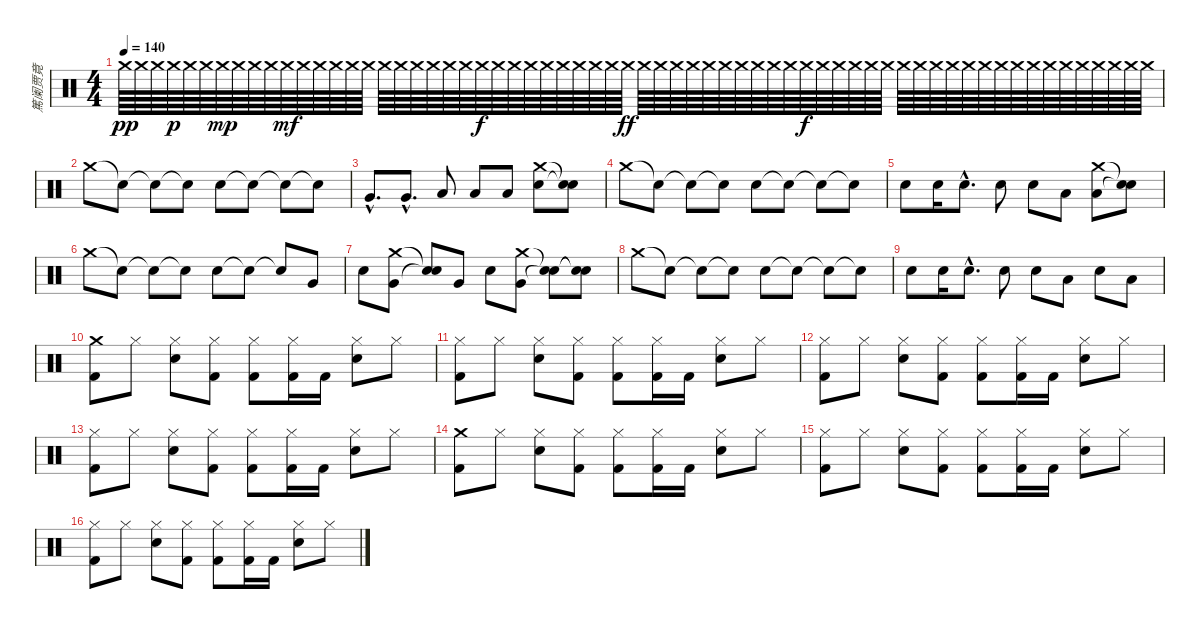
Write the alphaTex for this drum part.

\track ("篤阑贾竟" "篤阑贾竟") {instrument percussion}
\staff {score}
\articulation defaults
\ts (4 4)
\tempo 140
\clef neutral
\ks c "Crash medium (hit)".64{dy pp} "Crash medium (hit)".64 "Crash medium (hit)".64 "Crash medium (hit)".64{dy p} "Crash medium (hit)".64 "Crash medium (hit)".64 "Crash medium (hit)".64{dy mp} "Crash medium (hit)".64 "Crash medium (hit)".64 "Crash medium (hit)".64 "Crash medium (hit)".64{dy mf} "Crash medium (hit)".64 "Crash medium (hit)".64 "Crash medium (hit)".64 "Crash medium (hit)".64 "Crash medium (hit)".64 "Crash medium (hit)".64 "Crash medium (hit)".64 "Crash medium (hit)".64 "Crash medium (hit)".64 "Crash medium (hit)".64 "Crash medium (hit)".64 "Crash medium (hit)".64{dy f} "Crash medium (hit)".64 "Crash medium (hit)".64 "Crash medium (hit)".64 "Crash medium (hit)".64 "Crash medium (hit)".64 "Crash medium (hit)".64 "Crash medium (hit)".64 "Crash medium (hit)".64 "Crash medium (hit)".64{dy ff} "Crash medium (hit)".64 "Crash medium (hit)".64 "Crash medium (hit)".64 "Crash medium (hit)".64 "Crash medium (hit)".64 "Crash medium (hit)".64 "Crash medium (hit)".64 "Crash medium (hit)".64 "Crash medium (hit)".64 "Crash medium (hit)".64 "Crash medium (hit)".64{dy f} "Crash medium (hit)".64 "Crash medium (hit)".64 "Crash medium (hit)".64 "Crash medium (hit)".64 "Crash medium (hit)".64 "Crash medium (hit)".64 "Crash medium (hit)".64 "Crash medium (hit)".64 "Crash medium (hit)".64 "Crash medium (hit)".64 "Crash medium (hit)".64 "Crash medium (hit)".64 "Crash medium (hit)".64 "Crash medium (hit)".64 "Crash medium (hit)".64 "Crash medium (hit)".64 "Crash medium (hit)".64 "Crash medium (hit)".64 "Crash medium (hit)".64 "Crash medium (hit)".64 "Crash medium (hit)".64
|
"Crash medium (hit)".8 "Snare (hit)"{t}.8 "Snare (hit)"{t}.8 "Snare (hit)"{t}.8 "Snare (hit) 2".8 "Snare (hit)"{t}.8 "Snare (hit)"{t}.8 "Snare (hit)"{t}.8 |
"Very Low Tom (hit)"{hac}.8{d} "Very Low Tom (hit)"{hac}.8{d} "Low Floor Tom (hit)".8 "Low Floor Tom (hit)".8 "Low Floor Tom (hit)".8 ("Crash medium (hit)" "Snare (hit) 2").8 ("Snare (hit)"{t} "Snare (hit)"{t}).8 |
"Crash medium (hit)".8 "Snare (hit)"{t}.8 "Snare (hit)"{t}.8 "Snare (hit)"{t}.8 "Snare (hit) 2".8 "Snare (hit)"{t}.8 "Snare (hit)"{t}.8 "Snare (hit)"{t}.8 |
"Snare (hit) 2".8 "Snare (hit) 2".16 "Snare (hit) 2"{hac}.8{d} "Snare (hit) 2".8 "Snare (hit) 2".8 "Low Floor Tom (hit)".8 ("Crash medium (hit)" "Low Floor Tom (hit)").8 ("Snare (hit)"{t} "Snare (hit)"{t}).8 |
"Crash medium (hit)".8 "Snare (hit)"{t}.8 "Snare (hit)"{t}.8 "Snare (hit)"{t}.8 "Snare (hit) 2".8 "Snare (hit)"{t}.8 "Snare (hit)"{t}.8 "Very Low Tom (hit)".8 |
"Snare (hit) 2".8 ("Crash medium (hit)" "Very Low Tom (hit)").8 ("Snare (hit)"{t} "Snare (hit)"{t}).8 "Very Low Tom (hit)".8 "Snare (hit) 2".8 ("Crash medium (hit)" "Very Low Tom (hit)").8 ("Snare (hit)"{t} "Snare (hit)"{t}).8 ("Snare (hit)"{t} "Snare (hit)"{t}).8 |
"Crash medium (hit)".8 "Snare (hit)"{t}.8 "Snare (hit)"{t}.8 "Snare (hit)"{t}.8 "Snare (hit) 2".8 "Snare (hit)"{t}.8 "Snare (hit)"{t}.8 "Snare (hit)"{t}.8 |
"Snare (hit) 2".8 "Snare (hit) 2".16 "Snare (hit) 2"{hac}.8{d} "Snare (hit) 2".8 "Snare (hit) 2".8 "Low Floor Tom (hit)".8 "Snare (hit) 2".8 "Low Floor Tom (hit)".8 |
("Crash medium (hit)" "Kick (hit) 2").8 "Hi-Hat (closed)".8 ("Hi-Hat (closed)" "Snare (hit) 2").8 ("Hi-Hat (closed)" "Kick (hit) 2").8 ("Hi-Hat (closed)" "Kick (hit) 2").8 ("Hi-Hat (closed)" "Kick (hit) 2").16 "Kick (hit) 2".16 ("Hi-Hat (closed)" "Snare (hit) 2").8 "Hi-Hat (closed)".8 |
("Hi-Hat (closed)" "Kick (hit) 2").8 "Hi-Hat (closed)".8 ("Hi-Hat (closed)" "Snare (hit) 2").8 ("Hi-Hat (closed)" "Kick (hit) 2").8 ("Hi-Hat (closed)" "Kick (hit) 2").8 ("Hi-Hat (closed)" "Kick (hit) 2").16 "Kick (hit) 2".16 ("Hi-Hat (closed)" "Snare (hit) 2").8 "Hi-Hat (closed)".8 |
("Hi-Hat (closed)" "Kick (hit) 2").8 "Hi-Hat (closed)".8 ("Hi-Hat (closed)" "Snare (hit) 2").8 ("Hi-Hat (closed)" "Kick (hit) 2").8 ("Hi-Hat (closed)" "Kick (hit) 2").8 ("Hi-Hat (closed)" "Kick (hit) 2").16 "Kick (hit) 2".16 ("Hi-Hat (closed)" "Snare (hit) 2").8 "Hi-Hat (closed)".8 |
("Hi-Hat (closed)" "Kick (hit) 2").8 "Hi-Hat (closed)".8 ("Hi-Hat (closed)" "Snare (hit) 2").8 ("Hi-Hat (closed)" "Kick (hit) 2").8 ("Hi-Hat (closed)" "Kick (hit) 2").8 ("Hi-Hat (closed)" "Kick (hit) 2").16 "Kick (hit) 2".16 ("Hi-Hat (closed)" "Snare (hit) 2").8 "Hi-Hat (closed)".8 |
("Crash medium (hit)" "Kick (hit) 2").8 "Hi-Hat (closed)".8 ("Hi-Hat (closed)" "Snare (hit) 2").8 ("Hi-Hat (closed)" "Kick (hit) 2").8 ("Hi-Hat (closed)" "Kick (hit) 2").8 ("Hi-Hat (closed)" "Kick (hit) 2").16 "Kick (hit) 2".16 ("Hi-Hat (closed)" "Snare (hit) 2").8 "Hi-Hat (closed)".8 |
("Hi-Hat (closed)" "Kick (hit) 2").8 "Hi-Hat (closed)".8 ("Hi-Hat (closed)" "Snare (hit) 2").8 ("Hi-Hat (closed)" "Kick (hit) 2").8 ("Hi-Hat (closed)" "Kick (hit) 2").8 ("Hi-Hat (closed)" "Kick (hit) 2").16 "Kick (hit) 2".16 ("Hi-Hat (closed)" "Snare (hit) 2").8 "Hi-Hat (closed)".8 |
("Hi-Hat (closed)" "Kick (hit) 2").8 "Hi-Hat (closed)".8 ("Hi-Hat (closed)" "Snare (hit) 2").8 ("Hi-Hat (closed)" "Kick (hit) 2").8 ("Hi-Hat (closed)" "Kick (hit) 2").8 ("Hi-Hat (closed)" "Kick (hit) 2").16 "Kick (hit) 2".16 ("Hi-Hat (closed)" "Snare (hit) 2").8 "Hi-Hat (closed)".8
